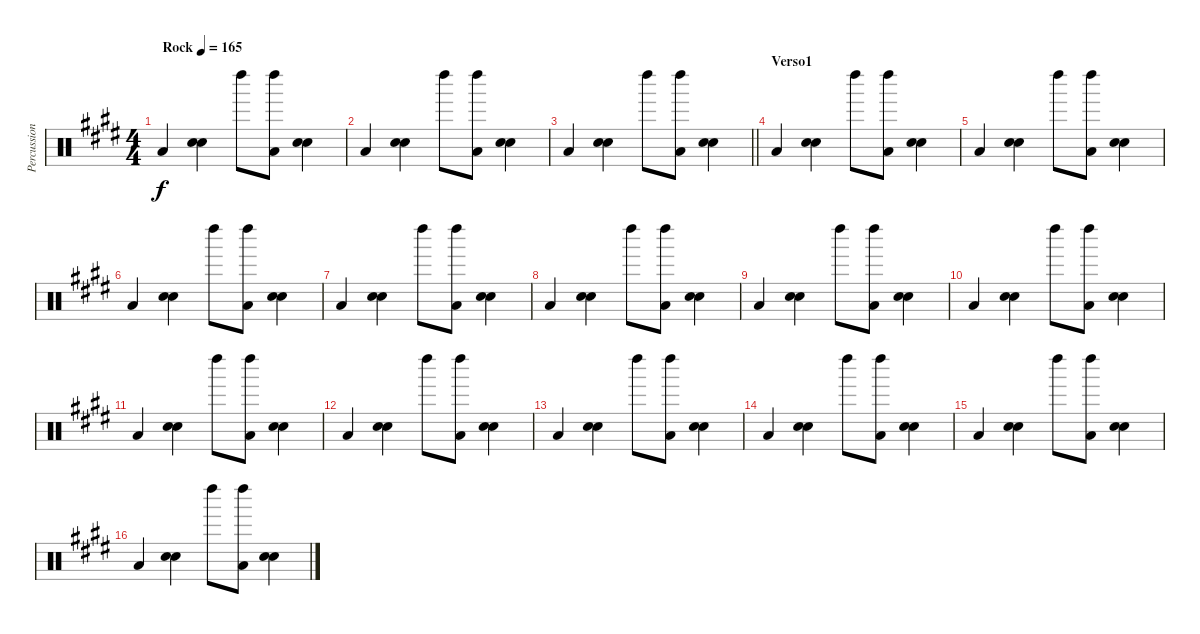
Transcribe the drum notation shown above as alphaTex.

\track ("Percussioni" "Percussion") {instrument percussion}
\staff {score}
\articulation defaults
\ts (4 4)
\tempo (165 "Rock")
\clef neutral
\ks e "Low Floor Tom (hit)".4{dy f}
("Electric Snare (hit)" "Snare (hit) 2").4 "Left Maraca (hit)".8 ("Low Floor Tom (hit)" "Left Maraca (hit)").8 ("Electric Snare (hit)" "Snare (hit) 2").4 |
"Low Floor Tom (hit)".4 ("Electric Snare (hit)" "Snare (hit) 2").4 "Left Maraca (hit)".8 ("Low Floor Tom (hit)" "Left Maraca (hit)").8 ("Electric Snare (hit)" "Snare (hit) 2").4 |
\barLineRight lightlight "Low Floor Tom (hit)".4
("Electric Snare (hit)" "Snare (hit) 2").4 "Left Maraca (hit)".8 ("Low Floor Tom (hit)" "Left Maraca (hit)").8 ("Electric Snare (hit)" "Snare (hit) 2").4 |
\section ("" "Verso1")
"Low Floor Tom (hit)".4 ("Electric Snare (hit)" "Snare (hit) 2").4 "Left Maraca (hit)".8 ("Low Floor Tom (hit)" "Left Maraca (hit)").8 ("Electric Snare (hit)" "Snare (hit) 2").4 |
"Low Floor Tom (hit)".4 ("Electric Snare (hit)" "Snare (hit) 2").4 "Left Maraca (hit)".8 ("Low Floor Tom (hit)" "Left Maraca (hit)").8 ("Electric Snare (hit)" "Snare (hit) 2").4 |
"Low Floor Tom (hit)".4 ("Electric Snare (hit)" "Snare (hit) 2").4 "Left Maraca (hit)".8 ("Low Floor Tom (hit)" "Left Maraca (hit)").8 ("Electric Snare (hit)" "Snare (hit) 2").4 |
"Low Floor Tom (hit)".4 ("Electric Snare (hit)" "Snare (hit) 2").4 "Left Maraca (hit)".8 ("Low Floor Tom (hit)" "Left Maraca (hit)").8 ("Electric Snare (hit)" "Snare (hit) 2").4 |
"Low Floor Tom (hit)".4 ("Electric Snare (hit)" "Snare (hit) 2").4 "Left Maraca (hit)".8 ("Low Floor Tom (hit)" "Left Maraca (hit)").8 ("Electric Snare (hit)" "Snare (hit) 2").4 |
"Low Floor Tom (hit)".4 ("Electric Snare (hit)" "Snare (hit) 2").4 "Left Maraca (hit)".8 ("Low Floor Tom (hit)" "Left Maraca (hit)").8 ("Electric Snare (hit)" "Snare (hit) 2").4 |
"Low Floor Tom (hit)".4 ("Electric Snare (hit)" "Snare (hit) 2").4 "Left Maraca (hit)".8 ("Low Floor Tom (hit)" "Left Maraca (hit)").8 ("Electric Snare (hit)" "Snare (hit) 2").4 |
"Low Floor Tom (hit)".4 ("Electric Snare (hit)" "Snare (hit) 2").4 "Left Maraca (hit)".8 ("Low Floor Tom (hit)" "Left Maraca (hit)").8 ("Electric Snare (hit)" "Snare (hit) 2").4 |
"Low Floor Tom (hit)".4 ("Electric Snare (hit)" "Snare (hit) 2").4 "Left Maraca (hit)".8 ("Low Floor Tom (hit)" "Left Maraca (hit)").8 ("Electric Snare (hit)" "Snare (hit) 2").4 |
"Low Floor Tom (hit)".4 ("Electric Snare (hit)" "Snare (hit) 2").4 "Left Maraca (hit)".8 ("Low Floor Tom (hit)" "Left Maraca (hit)").8 ("Electric Snare (hit)" "Snare (hit) 2").4 |
"Low Floor Tom (hit)".4 ("Electric Snare (hit)" "Snare (hit) 2").4 "Left Maraca (hit)".8 ("Low Floor Tom (hit)" "Left Maraca (hit)").8 ("Electric Snare (hit)" "Snare (hit) 2").4 |
"Low Floor Tom (hit)".4 ("Electric Snare (hit)" "Snare (hit) 2").4 "Left Maraca (hit)".8 ("Low Floor Tom (hit)" "Left Maraca (hit)").8 ("Electric Snare (hit)" "Snare (hit) 2").4 |
"Low Floor Tom (hit)".4 ("Electric Snare (hit)" "Snare (hit) 2").4 "Left Maraca (hit)".8 ("Low Floor Tom (hit)" "Left Maraca (hit)").8 ("Electric Snare (hit)" "Snare (hit) 2").4
